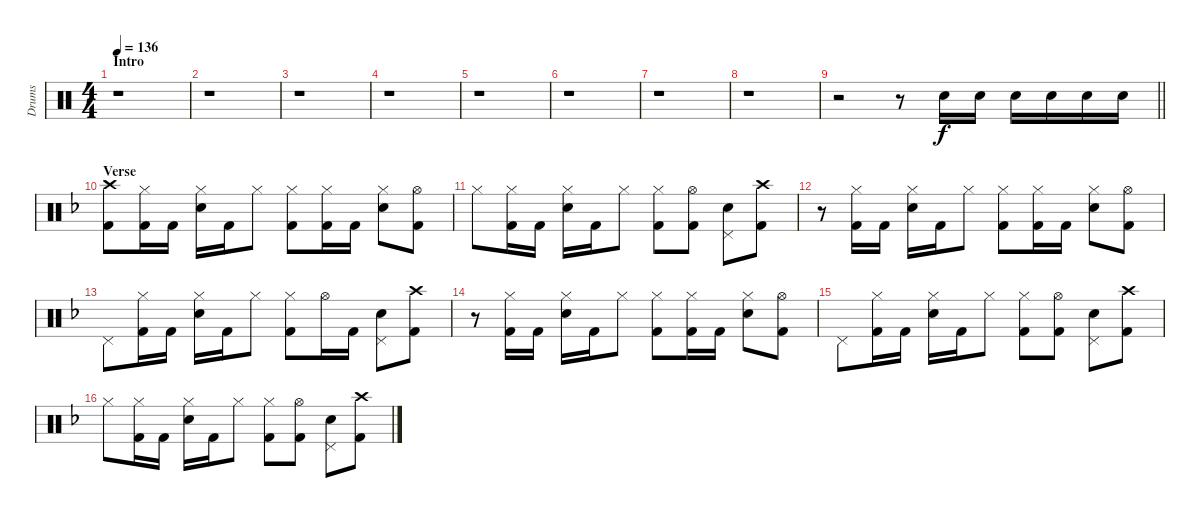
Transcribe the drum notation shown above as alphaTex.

\track ("Drums" "Drums") {instrument percussion}
\staff {score}
\articulation defaults
\ts (4 4)
\section ("" "Intro")
\tempo 136
\clef neutral
\ks c
r.1{dy f} |
r.1 |
r.1 |
r.1 |
r.1 |
r.1 |
r.1 |
r.1 |
\barLineRight lightlight
r.2 r.8 "Snare (hit) 2".16 "Snare (hit) 2".16 "Snare (hit) 2".16 "Snare (hit) 2".16 "Snare (hit) 2".16 "Snare (hit) 2".16 |
\section ("" "Verse")
\ks dminor
("Crash high (hit)" "Kick (hit) 2").8 ("Hi-Hat (closed)" "Kick (hit) 2").16 "Kick (hit) 2".16 ("Hi-Hat (closed)" "Snare (hit) 2").16 "Kick (hit) 2".16 "Hi-Hat (closed)".8 ("Hi-Hat (closed)" "Kick (hit) 2").8 ("Hi-Hat (closed)" "Kick (hit) 2").16 "Kick (hit) 2".16 ("Hi-Hat (closed)" "Snare (hit) 2").8 ("Hi-Hat (open)" "Kick (hit) 2").8 |
"Hi-Hat (closed)".8 ("Hi-Hat (closed)" "Kick (hit) 2").16 "Kick (hit) 2".16 ("Hi-Hat (closed)" "Snare (hit) 2").16 "Kick (hit) 2".16 "Hi-Hat (closed)".8 ("Hi-Hat (closed)" "Kick (hit) 2").8 ("Hi-Hat (open)" "Kick (hit) 2").8 ("Pedal Hi-Hat (hit)" "Snare (hit) 2").8 ("Crash high (hit)" "Kick (hit) 2").8 |
r.8 ("Hi-Hat (closed)" "Kick (hit) 2").16 "Kick (hit) 2".16 ("Hi-Hat (closed)" "Snare (hit) 2").16 "Kick (hit) 2".16 "Hi-Hat (closed)".8 ("Hi-Hat (closed)" "Kick (hit) 2").8 ("Hi-Hat (closed)" "Kick (hit) 2").16 "Kick (hit) 2".16 ("Hi-Hat (closed)" "Snare (hit) 2").8 ("Hi-Hat (open)" "Kick (hit) 2").8 |
"Pedal Hi-Hat (hit)".8 ("Hi-Hat (closed)" "Kick (hit) 2").16 "Kick (hit) 2".16 ("Hi-Hat (closed)" "Snare (hit) 2").16 "Kick (hit) 2".16 "Hi-Hat (closed)".8 ("Hi-Hat (closed)" "Kick (hit) 2").8 "Hi-Hat (open)".16 "Kick (hit) 2".16 ("Pedal Hi-Hat (hit)" "Snare (hit) 2").8 ("Crash high (hit)" "Kick (hit) 2").8 |
r.8 ("Hi-Hat (closed)" "Kick (hit) 2").16 "Kick (hit) 2".16 ("Hi-Hat (closed)" "Snare (hit) 2").16 "Kick (hit) 2".16 "Hi-Hat (closed)".8 ("Hi-Hat (closed)" "Kick (hit) 2").8 ("Hi-Hat (closed)" "Kick (hit) 2").16 "Kick (hit) 2".16 ("Hi-Hat (closed)" "Snare (hit) 2").8 ("Hi-Hat (open)" "Kick (hit) 2").8 |
"Pedal Hi-Hat (hit)".8 ("Hi-Hat (closed)" "Kick (hit) 2").16 "Kick (hit) 2".16 ("Hi-Hat (closed)" "Snare (hit) 2").16 "Kick (hit) 2".16 "Hi-Hat (closed)".8 ("Hi-Hat (closed)" "Kick (hit) 2").8 ("Hi-Hat (open)" "Kick (hit) 2").8 ("Pedal Hi-Hat (hit)" "Snare (hit) 2").8 ("Crash high (hit)" "Kick (hit) 2").8 |
"Hi-Hat (closed)".8 ("Hi-Hat (closed)" "Kick (hit) 2").16 "Kick (hit) 2".16 ("Hi-Hat (closed)" "Snare (hit) 2").16 "Kick (hit) 2".16 "Hi-Hat (closed)".8 ("Hi-Hat (closed)" "Kick (hit) 2").8 ("Hi-Hat (open)" "Kick (hit) 2").8 ("Pedal Hi-Hat (hit)" "Snare (hit) 2").8 ("Crash high (hit)" "Kick (hit) 2").8
